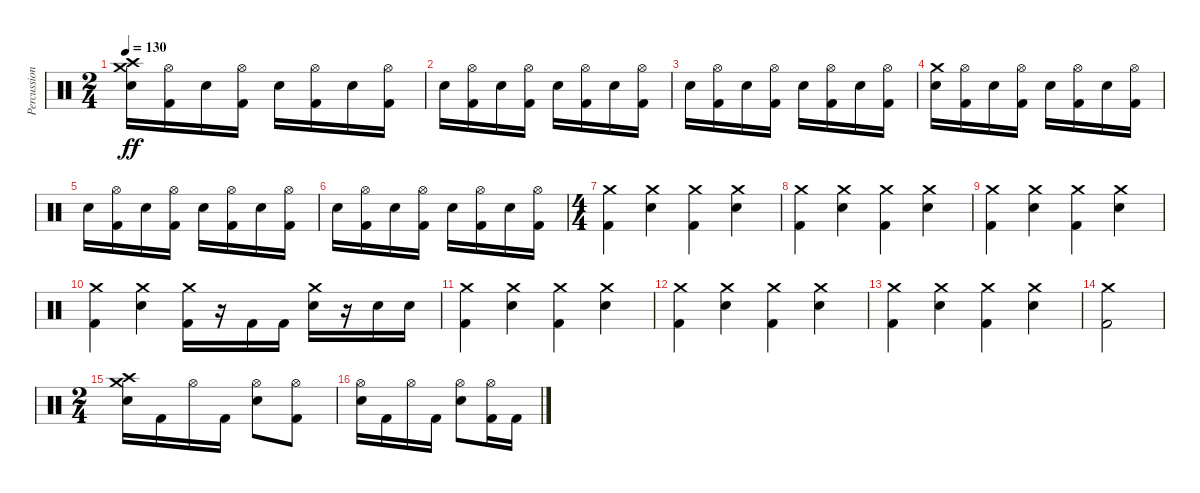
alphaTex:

\track ("Percussion" "Percussion") {instrument percussion}
\staff {score}
\articulation defaults
\ts (2 4)
\tempo 130
\clef neutral
\ks c
("Crash medium (hit)" "Crash high (hit)" "Snare (hit) 2").16{dy ff} ("Hi-Hat (open)" "Kick (hit) 2").16 "Snare (hit) 2".16 ("Hi-Hat (open)" "Kick (hit) 2").16 "Snare (hit) 2".16 ("Hi-Hat (open)" "Kick (hit) 2").16 "Snare (hit) 2".16 ("Hi-Hat (open)" "Kick (hit) 2").16 |
"Snare (hit) 2".16 ("Hi-Hat (open)" "Kick (hit) 2").16 "Snare (hit) 2".16 ("Hi-Hat (open)" "Kick (hit) 2").16 "Snare (hit) 2".16 ("Hi-Hat (open)" "Kick (hit) 2").16 "Snare (hit) 2".16 ("Hi-Hat (open)" "Kick (hit) 2").16 |
"Snare (hit) 2".16 ("Hi-Hat (open)" "Kick (hit) 2").16 "Snare (hit) 2".16 ("Hi-Hat (open)" "Kick (hit) 2").16 "Snare (hit) 2".16 ("Hi-Hat (open)" "Kick (hit) 2").16 "Snare (hit) 2".16 ("Hi-Hat (open)" "Kick (hit) 2").16 |
("Crash medium (hit)" "Snare (hit) 2").16 ("Hi-Hat (open)" "Kick (hit) 2").16 "Snare (hit) 2".16 ("Hi-Hat (open)" "Kick (hit) 2").16 "Snare (hit) 2".16 ("Hi-Hat (open)" "Kick (hit) 2").16 "Snare (hit) 2".16 ("Hi-Hat (open)" "Kick (hit) 2").16 |
"Snare (hit) 2".16 ("Hi-Hat (open)" "Kick (hit) 2").16 "Snare (hit) 2".16 ("Hi-Hat (open)" "Kick (hit) 2").16 "Snare (hit) 2".16 ("Hi-Hat (open)" "Kick (hit) 2").16 "Snare (hit) 2".16 ("Hi-Hat (open)" "Kick (hit) 2").16 |
"Snare (hit) 2".16 ("Hi-Hat (open)" "Kick (hit) 2").16 "Snare (hit) 2".16 ("Hi-Hat (open)" "Kick (hit) 2").16 "Snare (hit) 2".16 ("Hi-Hat (open)" "Kick (hit) 2").16 "Snare (hit) 2".16 ("Hi-Hat (open)" "Kick (hit) 2").16 |
\ts (4 4)
("Crash medium (hit)" "Kick (hit) 2").4 ("Crash medium (hit)" "Snare (hit) 2").4 ("Crash medium (hit)" "Kick (hit) 2").4 ("Crash medium (hit)" "Snare (hit) 2").4 |
("Crash medium (hit)" "Kick (hit) 2").4 ("Crash medium (hit)" "Snare (hit) 2").4 ("Crash medium (hit)" "Kick (hit) 2").4 ("Crash medium (hit)" "Snare (hit) 2").4 |
("Crash medium (hit)" "Kick (hit) 2").4 ("Crash medium (hit)" "Snare (hit) 2").4 ("Crash medium (hit)" "Kick (hit) 2").4 ("Crash medium (hit)" "Snare (hit) 2").4 |
("Crash medium (hit)" "Kick (hit) 2").4 ("Crash medium (hit)" "Snare (hit) 2").4 ("Crash medium (hit)" "Kick (hit) 2").16 r.16 "Kick (hit) 2".16 "Kick (hit) 2".16 ("Crash medium (hit)" "Snare (hit) 2").16 r.16 "Snare (hit) 2".16 "Snare (hit) 2".16 |
("Crash medium (hit)" "Kick (hit) 2").4 ("Crash medium (hit)" "Snare (hit) 2").4 ("Crash medium (hit)" "Kick (hit) 2").4 ("Crash medium (hit)" "Snare (hit) 2").4 |
("Crash medium (hit)" "Kick (hit) 2").4 ("Crash medium (hit)" "Snare (hit) 2").4 ("Crash medium (hit)" "Kick (hit) 2").4 ("Crash medium (hit)" "Snare (hit) 2").4 |
("Crash medium (hit)" "Kick (hit) 2").4 ("Crash medium (hit)" "Snare (hit) 2").4 ("Crash medium (hit)" "Kick (hit) 2").4 ("Crash medium (hit)" "Snare (hit) 2").4 |
("Crash medium (hit)" "Kick (hit) 2").2 |
\ts (2 4)
("Crash high (hit)" "Crash medium (hit)" "Snare (hit) 2").16 "Kick (hit) 2".16 "Hi-Hat (open)".16 "Kick (hit) 2".16 ("Hi-Hat (open)" "Snare (hit) 2").8 ("Hi-Hat (open)" "Kick (hit) 2").8 |
("Hi-Hat (open)" "Snare (hit) 2").16 "Kick (hit) 2".16 "Hi-Hat (open)".16 "Kick (hit) 2".16 ("Hi-Hat (open)" "Snare (hit) 2").8 ("Hi-Hat (open)" "Kick (hit) 2").16 "Kick (hit) 2".16
